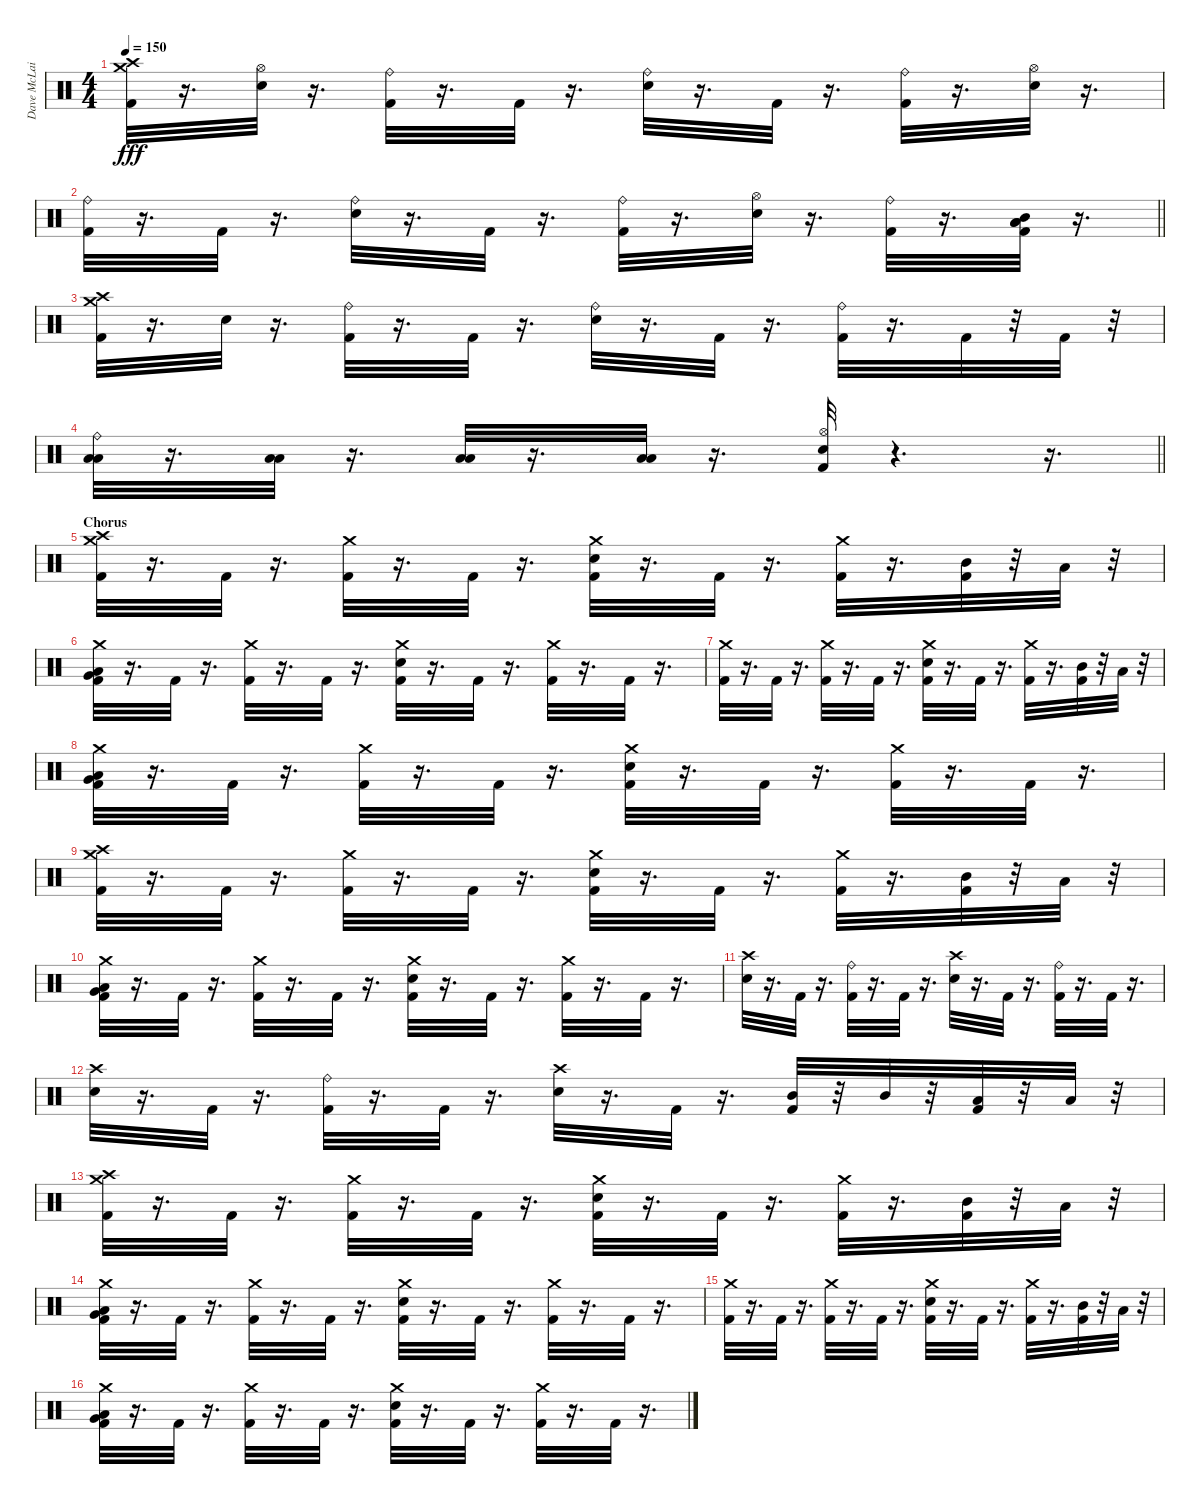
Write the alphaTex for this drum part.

\track ("Dave McLain" "Dave McLai") {instrument percussion}
\staff {score}
\articulation defaults
\ts (4 4)
\tempo 150
\clef neutral
\ks c
("Crash medium (hit)" "Crash high (hit)" "Kick (hit) 2").32{dy fff} r.16{d} ("Hi-Hat (open)" "Snare (hit) 2").32 r.16{d} ("Ride (bell)" "Kick (hit) 2").32 r.16{d} "Kick (hit) 2".32 r.16{d} ("Ride (bell)" "Snare (hit) 2").32 r.16{d} "Kick (hit) 2".32 r.16{d} ("Ride (bell)" "Kick (hit) 2").32 r.16{d} ("Hi-Hat (open)" "Snare (hit) 2").32 r.16{d} |
\barLineRight lightlight
("Ride (bell)" "Kick (hit) 2").32 r.16{d} "Kick (hit) 2".32 r.16{d} ("Ride (bell)" "Snare (hit) 2").32 r.16{d} "Kick (hit) 2".32 r.16{d} ("Ride (bell)" "Kick (hit) 2").32 r.16{d} ("Hi-Hat (open)" "Snare (hit) 2").32 r.16{d} ("Ride (bell)" "Kick (hit) 2").32 r.16{d} ("Mid Tom (hit)" "Low Tom (hit)" "Low Floor Tom (hit)" "Kick (hit) 2").32 r.16{d} |
("Kick (hit) 2" "Crash high (hit)" "Crash medium (hit)").32 r.16{d} "Snare (hit) 2".32 r.16{d} ("Kick (hit) 2" "Ride (bell)").32 r.16{d} "Kick (hit) 2".32 r.16{d} ("Snare (hit) 2" "Ride (bell)").32 r.16{d} "Kick (hit) 2".32 r.16{d} ("Kick (hit) 2" "Ride (bell)").32 r.16{d} "Kick (hit) 2".32 r.32 "Kick (hit) 2".32 r.32 |
\barLineRight lightlight
("Low Tom (hit)" "Low Floor Tom (hit)" "Ride (bell)").32 r.16{d} ("Low Tom (hit)" "Low Floor Tom (hit)").32 r.16{d} ("Low Floor Tom (hit)" "Low Tom (hit)").32 r.16{d} ("Low Floor Tom (hit)" "Low Tom (hit)").32 r.16{d} ("Kick (hit) 2" "Snare (hit) 2" "Hi-Hat (open)").32 r.4{d} r.16{d} |
\section ("" "Chorus")
("Crash high (hit)" "Crash medium (hit)" "Kick (hit) 2").32 r.16{d} "Kick (hit) 2".32 r.16{d} ("Crash medium (hit)" "Kick (hit) 2").32 r.16{d} "Kick (hit) 2".32 r.16{d} ("Crash medium (hit)" "Snare (hit) 2" "Kick (hit) 2").32 r.16{d} "Kick (hit) 2".32 r.16{d} ("Crash medium (hit)" "Kick (hit) 2").32 r.16{d} ("Mid Tom (hit)" "Kick (hit) 2").32 r.32 "Low Tom (hit)".32 r.32 |
("Low Floor Tom (hit)" "Very Low Tom (hit)" "Crash medium (hit)" "Kick (hit) 2").32 r.16{d} "Kick (hit) 2".32 r.16{d} ("Crash medium (hit)" "Kick (hit) 2").32 r.16{d} "Kick (hit) 2".32 r.16{d} ("Crash medium (hit)" "Snare (hit) 2" "Kick (hit) 2").32 r.16{d} "Kick (hit) 2".32 r.16{d} ("Crash medium (hit)" "Kick (hit) 2").32 r.16{d} "Kick (hit) 2".32 r.16{d} |
("Crash medium (hit)" "Kick (hit) 2").32 r.16{d} "Kick (hit) 2".32 r.16{d} ("Crash medium (hit)" "Kick (hit) 2").32 r.16{d} "Kick (hit) 2".32 r.16{d} ("Crash medium (hit)" "Snare (hit) 2" "Kick (hit) 2").32 r.16{d} "Kick (hit) 2".32 r.16{d} ("Crash medium (hit)" "Kick (hit) 2").32 r.16{d} ("Mid Tom (hit)" "Kick (hit) 2").32 r.32 "Low Tom (hit)".32 r.32 |
("Very Low Tom (hit)" "Low Floor Tom (hit)" "Crash medium (hit)" "Kick (hit) 2").32 r.16{d} "Kick (hit) 2".32 r.16{d} ("Crash medium (hit)" "Kick (hit) 2").32 r.16{d} "Kick (hit) 2".32 r.16{d} ("Crash medium (hit)" "Snare (hit) 2" "Kick (hit) 2").32 r.16{d} "Kick (hit) 2".32 r.16{d} ("Crash medium (hit)" "Kick (hit) 2").32 r.16{d} "Kick (hit) 2".32 r.16{d} |
("Crash high (hit)" "Crash medium (hit)" "Kick (hit) 2").32 r.16{d} "Kick (hit) 2".32 r.16{d} ("Crash medium (hit)" "Kick (hit) 2").32 r.16{d} "Kick (hit) 2".32 r.16{d} ("Crash medium (hit)" "Snare (hit) 2" "Kick (hit) 2").32 r.16{d} "Kick (hit) 2".32 r.16{d} ("Crash medium (hit)" "Kick (hit) 2").32 r.16{d} ("Mid Tom (hit)" "Kick (hit) 2").32 r.32 "Low Tom (hit)".32 r.32 |
("Low Floor Tom (hit)" "Very Low Tom (hit)" "Crash medium (hit)" "Kick (hit) 2").32 r.16{d} "Kick (hit) 2".32 r.16{d} ("Crash medium (hit)" "Kick (hit) 2").32 r.16{d} "Kick (hit) 2".32 r.16{d} ("Crash medium (hit)" "Snare (hit) 2" "Kick (hit) 2").32 r.16{d} "Kick (hit) 2".32 r.16{d} ("Crash medium (hit)" "Kick (hit) 2").32 r.16{d} "Kick (hit) 2".32 r.16{d} |
("Snare (hit) 2" "Crash high (hit)").32 r.16{d} "Kick (hit) 2".32 r.16{d} ("Ride (bell)" "Kick (hit) 2").32 r.16{d} "Kick (hit) 2".32 r.16{d} ("Crash high (hit)" "Snare (hit) 2").32 r.16{d} "Kick (hit) 2".32 r.16{d} ("Ride (bell)" "Kick (hit) 2").32 r.16{d} "Kick (hit) 2".32 r.16{d} |
("Crash high (hit)" "Snare (hit) 2").32 r.16{d} "Kick (hit) 2".32 r.16{d} ("Ride (bell)" "Kick (hit) 2").32 r.16{d} "Kick (hit) 2".32 r.16{d} ("Crash high (hit)" "Snare (hit) 2").32 r.16{d} "Kick (hit) 2".32 r.16{d} ("Mid Tom (hit)" "Kick (hit) 2").32 r.32 "Mid Tom (hit)".32 r.32 ("Low Tom (hit)" "Kick (hit) 2").32 r.32 "Low Tom (hit)".32 r.32 |
("Crash high (hit)" "Crash medium (hit)" "Kick (hit) 2").32 r.16{d} "Kick (hit) 2".32 r.16{d} ("Crash medium (hit)" "Kick (hit) 2").32 r.16{d} "Kick (hit) 2".32 r.16{d} ("Crash medium (hit)" "Snare (hit) 2" "Kick (hit) 2").32 r.16{d} "Kick (hit) 2".32 r.16{d} ("Crash medium (hit)" "Kick (hit) 2").32 r.16{d} ("Mid Tom (hit)" "Kick (hit) 2").32 r.32 "Low Tom (hit)".32 r.32 |
("Low Floor Tom (hit)" "Very Low Tom (hit)" "Crash medium (hit)" "Kick (hit) 2").32 r.16{d} "Kick (hit) 2".32 r.16{d} ("Crash medium (hit)" "Kick (hit) 2").32 r.16{d} "Kick (hit) 2".32 r.16{d} ("Crash medium (hit)" "Snare (hit) 2" "Kick (hit) 2").32 r.16{d} "Kick (hit) 2".32 r.16{d} ("Crash medium (hit)" "Kick (hit) 2").32 r.16{d} "Kick (hit) 2".32 r.16{d} |
("Crash medium (hit)" "Kick (hit) 2").32 r.16{d} "Kick (hit) 2".32 r.16{d} ("Crash medium (hit)" "Kick (hit) 2").32 r.16{d} "Kick (hit) 2".32 r.16{d} ("Crash medium (hit)" "Snare (hit) 2" "Kick (hit) 2").32 r.16{d} "Kick (hit) 2".32 r.16{d} ("Crash medium (hit)" "Kick (hit) 2").32 r.16{d} ("Mid Tom (hit)" "Kick (hit) 2").32 r.32 "Low Tom (hit)".32 r.32 |
("Very Low Tom (hit)" "Low Floor Tom (hit)" "Crash medium (hit)" "Kick (hit) 2").32 r.16{d} "Kick (hit) 2".32 r.16{d} ("Crash medium (hit)" "Kick (hit) 2").32 r.16{d} "Kick (hit) 2".32 r.16{d} ("Crash medium (hit)" "Snare (hit) 2" "Kick (hit) 2").32 r.16{d} "Kick (hit) 2".32 r.16{d} ("Crash medium (hit)" "Kick (hit) 2").32 r.16{d} "Kick (hit) 2".32 r.16{d}
